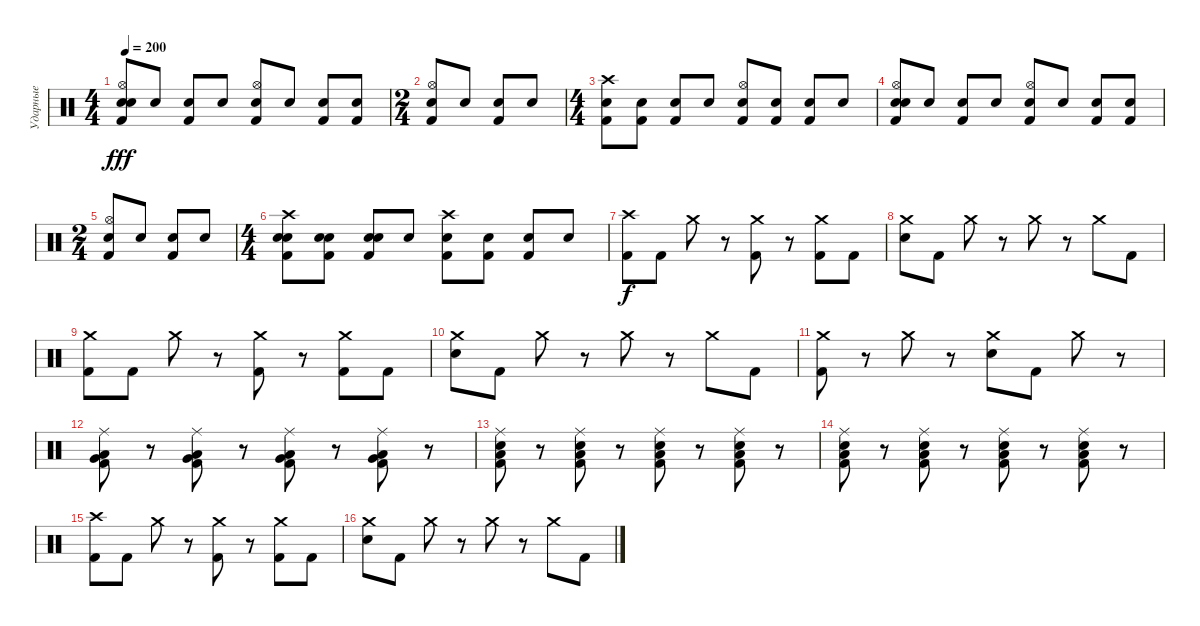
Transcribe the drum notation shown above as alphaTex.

\track ("Ударные" "Ударные") {instrument percussion}
\staff {score}
\articulation defaults
\ts (4 4)
\tempo 200
\clef neutral
\ks c
("Snare (hit)" "Hi-Hat (open)" "Electric Snare (hit)" "Kick (hit) 2").8{dy fff} "Snare (hit)".8 ("Snare (hit)" "Kick (hit) 2").8 "Snare (hit)".8 ("Snare (hit)" "Hi-Hat (open)" "Kick (hit) 2").8 "Snare (hit)".8 ("Snare (hit)" "Kick (hit) 2").8 ("Snare (hit)" "Kick (hit) 2").8 |
\ts (2 4)
("Snare (hit)" "Hi-Hat (open)" "Kick (hit) 2").8 "Snare (hit)".8 ("Snare (hit)" "Kick (hit) 2").8 "Snare (hit)".8 |
\ts (4 4)
("Snare (hit)" "Crash high (hit)" "Kick (hit) 2").8 ("Snare (hit)" "Kick (hit) 2").8 ("Snare (hit)" "Kick (hit) 2").8 "Snare (hit)".8 ("Snare (hit)" "Hi-Hat (open)" "Kick (hit) 2").8 ("Snare (hit)" "Kick (hit) 2").8 ("Snare (hit)" "Kick (hit) 2").8 "Snare (hit)".8 |
("Snare (hit)" "Hi-Hat (open)" "Electric Snare (hit)" "Kick (hit) 2").8 "Snare (hit)".8 ("Snare (hit)" "Kick (hit) 2").8 "Snare (hit)".8 ("Snare (hit)" "Hi-Hat (open)" "Kick (hit) 2").8 "Snare (hit)".8 ("Snare (hit)" "Kick (hit) 2").8 ("Snare (hit)" "Kick (hit) 2").8 |
\ts (2 4)
("Snare (hit)" "Hi-Hat (open)" "Kick (hit) 2").8 "Snare (hit)".8 ("Snare (hit)" "Kick (hit) 2").8 "Snare (hit)".8 |
\ts (4 4)
("Snare (hit)" "Crash high (hit)" "Electric Snare (hit)" "Kick (hit) 2").8 ("Snare (hit)" "Electric Snare (hit)" "Kick (hit) 2").8 ("Snare (hit)" "Electric Snare (hit)" "Kick (hit) 2").8 "Snare (hit)".8 ("Snare (hit)" "Crash high (hit)" "Kick (hit) 2").8 ("Snare (hit)" "Kick (hit) 2").8 ("Snare (hit)" "Kick (hit) 2").8 "Snare (hit)".8 |
("Crash high (hit)" "Kick (hit) 2").8{dy f} "Kick (hit) 2".8 "Crash medium (hit)".8 r.8 ("Crash medium (hit)" "Kick (hit) 2").8 r.8 ("Crash medium (hit)" "Kick (hit) 2").8 "Kick (hit) 2".8 |
("Crash medium (hit)" "Electric Snare (hit)").8 "Kick (hit) 2".8 "Crash medium (hit)".8 r.8 "Crash medium (hit)".8 r.8 "Crash medium (hit)".8 "Kick (hit) 2".8 |
("Crash medium (hit)" "Kick (hit) 2").8 "Kick (hit) 2".8 "Crash medium (hit)".8 r.8 ("Crash medium (hit)" "Kick (hit) 2").8 r.8 ("Crash medium (hit)" "Kick (hit) 2").8 "Kick (hit) 2".8 |
("Crash medium (hit)" "Electric Snare (hit)").8 "Kick (hit) 2".8 "Crash medium (hit)".8 r.8 "Crash medium (hit)".8 r.8 "Crash medium (hit)".8 "Kick (hit) 2".8 |
("Crash medium (hit)" "Kick (hit) 2").8 r.8 "Crash medium (hit)".8 r.8 ("Crash medium (hit)" "Electric Snare (hit)").8 "Kick (hit) 2".8 "Crash medium (hit)".8 r.8 |
("Low Floor Tom (hit)" "Very Low Tom (hit)" "Kick (hit) 2" "Ride (middle)").8 r.8 ("Low Floor Tom (hit)" "Very Low Tom (hit)" "Kick (hit) 2" "Ride (middle)").8 r.8 ("Low Floor Tom (hit)" "Very Low Tom (hit)" "Kick (hit) 2" "Ride (middle)").8 r.8 ("Low Floor Tom (hit)" "Very Low Tom (hit)" "Kick (hit) 2" "Ride (middle)").8 r.8 |
("Low Floor Tom (hit)" "Electric Snare (hit)" "Kick (hit) 2" "Ride (middle)").8 r.8 ("Low Floor Tom (hit)" "Electric Snare (hit)" "Kick (hit) 2" "Ride (middle)").8 r.8 ("Low Floor Tom (hit)" "Electric Snare (hit)" "Kick (hit) 2" "Ride (middle)").8 r.8 ("Low Floor Tom (hit)" "Electric Snare (hit)" "Kick (hit) 2" "Ride (middle)").8 r.8 |
("Low Floor Tom (hit)" "Electric Snare (hit)" "Kick (hit) 2" "Ride (middle)").8 r.8 ("Low Floor Tom (hit)" "Electric Snare (hit)" "Kick (hit) 2" "Ride (middle)").8 r.8 ("Low Floor Tom (hit)" "Electric Snare (hit)" "Kick (hit) 2" "Ride (middle)").8 r.8 ("Low Floor Tom (hit)" "Electric Snare (hit)" "Kick (hit) 2" "Ride (middle)").8 r.8 |
("Crash high (hit)" "Kick (hit) 2").8 "Kick (hit) 2".8 "Crash medium (hit)".8 r.8 ("Crash medium (hit)" "Kick (hit) 2").8 r.8 ("Crash medium (hit)" "Kick (hit) 2").8 "Kick (hit) 2".8 |
("Crash medium (hit)" "Electric Snare (hit)").8 "Kick (hit) 2".8 "Crash medium (hit)".8 r.8 "Crash medium (hit)".8 r.8 "Crash medium (hit)".8 "Kick (hit) 2".8
